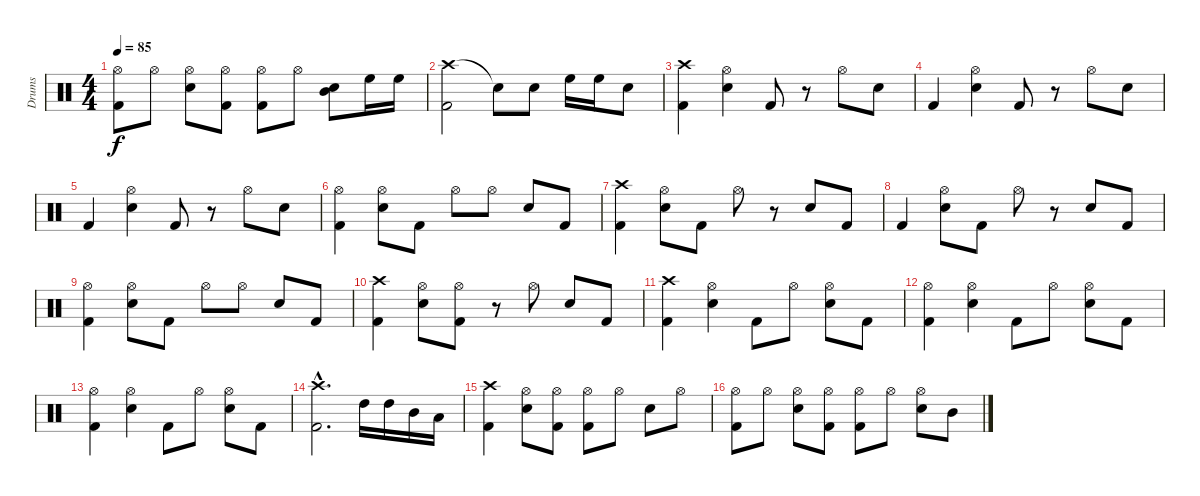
\track ("Drums" "Drums") {instrument percussion}
\staff {score}
\articulation defaults
\ts (4 4)
\tempo 85
\clef neutral
\ks c
("Hi-Hat (open)" "Kick (hit) 2").8{dy f} "Hi-Hat (open)".8 ("Hi-Hat (open)" "Snare (hit) 2").8 ("Hi-Hat (open)" "Kick (hit) 2").8 ("Hi-Hat (open)" "Kick (hit) 2").8 "Hi-Hat (open)".8 ("Snare (hit) 2" "Mid Tom (hit)").8 "High Floor Tom (hit)".16 "High Floor Tom (hit)".16 |
("Crash high (hit)" "Kick (hit) 2").2 "Snare (hit)"{t}.8 "Snare (hit) 2".8 "High Floor Tom (hit)".16 "High Floor Tom (hit)".16 "Snare (hit) 2".8 |
("Crash high (hit)" "Kick (hit) 2").4 ("Hi-Hat (open)" "Snare (hit) 2").4 "Kick (hit) 2".8 r.8 "Hi-Hat (open)".8 "Snare (hit) 2".8 |
"Kick (hit) 2".4 ("Hi-Hat (open)" "Snare (hit) 2").4 "Kick (hit) 2".8 r.8 "Hi-Hat (open)".8 "Snare (hit) 2".8 |
"Kick (hit) 2".4 ("Hi-Hat (open)" "Snare (hit) 2").4 "Kick (hit) 2".8 r.8 "Hi-Hat (open)".8 "Snare (hit) 2".8 |
("Hi-Hat (open)" "Kick (hit) 2").4 ("Hi-Hat (open)" "Snare (hit) 2").8 "Kick (hit) 2".8 "Hi-Hat (open)".8 "Hi-Hat (open)".8 "Snare (hit) 2".8 "Kick (hit) 2".8 |
("Crash high (hit)" "Kick (hit) 2").4 ("Hi-Hat (open)" "Snare (hit) 2").8 "Kick (hit) 2".8 "Hi-Hat (open)".8 r.8 "Snare (hit) 2".8 "Kick (hit) 2".8 |
"Kick (hit) 2".4 ("Hi-Hat (open)" "Snare (hit) 2").8 "Kick (hit) 2".8 "Hi-Hat (open)".8 r.8 "Snare (hit) 2".8 "Kick (hit) 2".8 |
("Hi-Hat (open)" "Kick (hit) 2").4 ("Hi-Hat (open)" "Snare (hit) 2").8 "Kick (hit) 2".8 "Hi-Hat (open)".8 "Hi-Hat (open)".8 "Snare (hit) 2".8 "Kick (hit) 2".8 |
("Crash high (hit)" "Kick (hit) 2").4 ("Hi-Hat (open)" "Snare (hit) 2").8 ("Hi-Hat (open)" "Kick (hit) 2").8 r.8 "Hi-Hat (open)".8 "Snare (hit) 2".8 "Kick (hit) 2".8 |
("Crash high (hit)" "Kick (hit) 2").4 ("Hi-Hat (open)" "Snare (hit) 2").4 "Kick (hit) 2".8 "Hi-Hat (open)".8 ("Hi-Hat (open)" "Snare (hit) 2").8 "Kick (hit) 2".8 |
("Hi-Hat (open)" "Kick (hit) 2").4 ("Hi-Hat (open)" "Snare (hit) 2").4 "Kick (hit) 2".8 "Hi-Hat (open)".8 ("Hi-Hat (open)" "Snare (hit) 2").8 "Kick (hit) 2".8 |
("Hi-Hat (open)" "Kick (hit) 2").4 ("Hi-Hat (open)" "Snare (hit) 2").4 "Kick (hit) 2".8 "Hi-Hat (open)".8 ("Hi-Hat (open)" "Snare (hit) 2").8 "Kick (hit) 2".8 |
("Crash high (hit)"{hac} "Kick (hit) 2"{hac}).2{d} "High Tom (hit)".16 "High Tom (hit)".16 "Mid Tom (hit)".16 "Low Tom (hit)".16 |
("Crash high (hit)" "Kick (hit) 2").4 ("Hi-Hat (open)" "Snare (hit) 2").8 ("Hi-Hat (open)" "Kick (hit) 2").8 ("Hi-Hat (open)" "Kick (hit) 2").8 "Hi-Hat (open)".8 "Snare (hit) 2".8 "Hi-Hat (open)".8 |
("Hi-Hat (open)" "Kick (hit) 2").8 "Hi-Hat (open)".8 ("Hi-Hat (open)" "Snare (hit) 2").8 ("Hi-Hat (open)" "Kick (hit) 2").8 ("Hi-Hat (open)" "Kick (hit) 2").8 "Hi-Hat (open)".8 ("Hi-Hat (open)" "Snare (hit) 2").8 "Mid Tom (hit)".8
